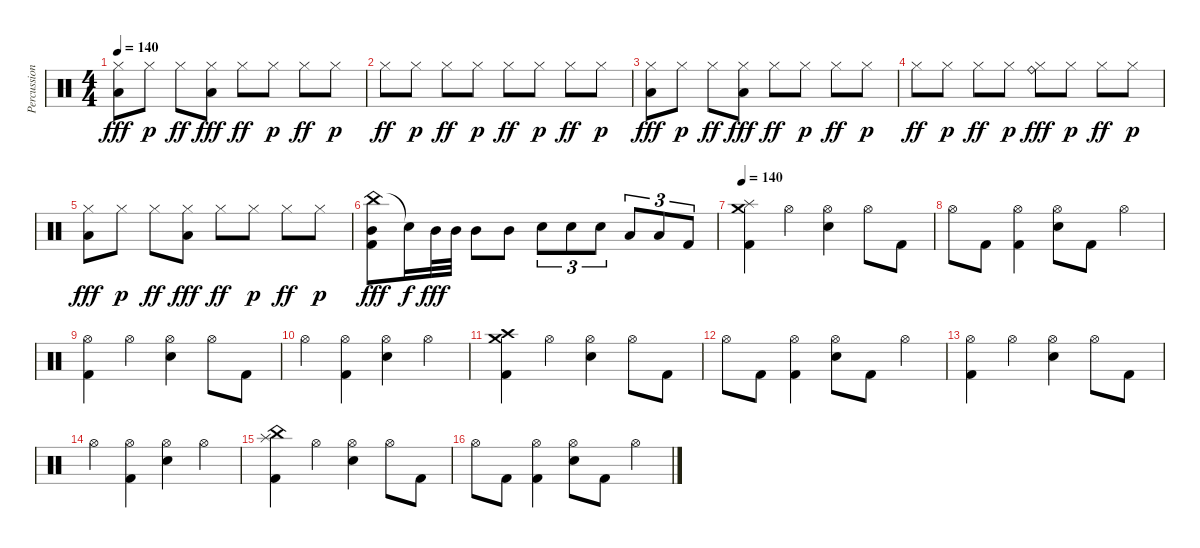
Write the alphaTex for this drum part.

\track ("Percussion" "Percussion") {instrument percussion}
\staff {score}
\articulation defaults
\ts (4 4)
\tempo 140
\clef neutral
\ks c
("Hi-Hat (closed)" "Low Floor Tom (hit)").8{dy fff} "Hi-Hat (closed)".8{dy p} "Hi-Hat (closed)".8{dy ff} ("Hi-Hat (closed)" "Low Floor Tom (hit)").8{dy fff} "Hi-Hat (closed)".8{dy ff} "Hi-Hat (closed)".8{dy p} "Hi-Hat (closed)".8{dy ff} "Hi-Hat (closed)".8{dy p} |
"Hi-Hat (closed)".8{dy ff} "Hi-Hat (closed)".8{dy p} "Hi-Hat (closed)".8{dy ff} "Hi-Hat (closed)".8{dy p} "Hi-Hat (closed)".8{dy ff} "Hi-Hat (closed)".8{dy p} "Hi-Hat (closed)".8{dy ff} "Hi-Hat (closed)".8{dy p} |
("Hi-Hat (closed)" "Low Floor Tom (hit)").8{dy fff} "Hi-Hat (closed)".8{dy p} "Hi-Hat (closed)".8{dy ff} ("Hi-Hat (closed)" "Low Floor Tom (hit)").8{dy fff} "Hi-Hat (closed)".8{dy ff} "Hi-Hat (closed)".8{dy p} "Hi-Hat (closed)".8{dy ff} "Hi-Hat (closed)".8{dy p} |
"Hi-Hat (closed)".8{dy ff} "Hi-Hat (closed)".8{dy p} "Hi-Hat (closed)".8{dy ff} "Hi-Hat (closed)".8{dy p} ("Hi-Hat (closed)" "Ride (bell)").8{dy fff} "Hi-Hat (closed)".8{dy p} "Hi-Hat (closed)".8{dy ff} "Hi-Hat (closed)".8{dy p} |
("Hi-Hat (closed)" "Low Floor Tom (hit)").8{dy fff} "Hi-Hat (closed)".8{dy p} "Hi-Hat (closed)".8{dy ff} ("Hi-Hat (closed)" "Low Floor Tom (hit)").8{dy fff} "Hi-Hat (closed)".8{dy ff} "Hi-Hat (closed)".8{dy p} "Hi-Hat (closed)".8{dy ff} "Hi-Hat (closed)".8{dy p} |
("China (hit)" "Mid Tom (hit)" "Kick (hit) 2").8{dy fff} "Snare (hit)"{t}.16{dy f} "Mid Tom (hit)".32{dy fff} "Mid Tom (hit)".32 "Mid Tom (hit)".8 "Mid Tom (hit)".8 "Electric Snare (hit)".8{tu (3 2)} "Electric Snare (hit)".8{tu (3 2)} "Electric Snare (hit)".8{tu (3 2)} "Low Tom (hit)".8{tu (3 2)} "Low Tom (hit)".8{tu (3 2)} "Kick (hit) 2".8{tu (3 2)} |
\tempo 140
("Crash medium (hit)" "Splash (hit)" "Kick (hit) 2").4 "Hi-Hat (open)".4 ("Hi-Hat (open)" "Electric Snare (hit)").4 "Hi-Hat (open)".8 "Kick (hit) 2".8 |
"Hi-Hat (open)".8 "Kick (hit) 2".8 ("Hi-Hat (open)" "Kick (hit) 2").4 ("Hi-Hat (open)" "Electric Snare (hit)").8 "Kick (hit) 2".8 "Hi-Hat (open)".4 |
("Hi-Hat (open)" "Kick (hit) 2").4 "Hi-Hat (open)".4 ("Hi-Hat (open)" "Electric Snare (hit)").4 "Hi-Hat (open)".8 "Kick (hit) 2".8 |
"Hi-Hat (open)".4 ("Hi-Hat (open)" "Kick (hit) 2").4 ("Hi-Hat (open)" "Electric Snare (hit)").4 "Hi-Hat (open)".4 |
("Crash medium (hit)" "Crash high (hit)" "Kick (hit) 2").4 "Hi-Hat (open)".4 ("Hi-Hat (open)" "Electric Snare (hit)").4 "Hi-Hat (open)".8 "Kick (hit) 2".8 |
"Hi-Hat (open)".8 "Kick (hit) 2".8 ("Hi-Hat (open)" "Kick (hit) 2").4 ("Hi-Hat (open)" "Electric Snare (hit)").8 "Kick (hit) 2".8 "Hi-Hat (open)".4 |
("Hi-Hat (open)" "Kick (hit) 2").4 "Hi-Hat (open)".4 ("Hi-Hat (open)" "Electric Snare (hit)").4 "Hi-Hat (open)".8 "Kick (hit) 2".8 |
"Hi-Hat (open)".4 ("Hi-Hat (open)" "Kick (hit) 2").4 ("Hi-Hat (open)" "Electric Snare (hit)").4 "Hi-Hat (open)".4 |
("Splash (hit)" "China (hit)" "Kick (hit) 2").4 "Hi-Hat (open)".4 ("Hi-Hat (open)" "Electric Snare (hit)").4 "Hi-Hat (open)".8 "Kick (hit) 2".8 |
"Hi-Hat (open)".8 "Kick (hit) 2".8 ("Hi-Hat (open)" "Kick (hit) 2").4 ("Hi-Hat (open)" "Electric Snare (hit)").8 "Kick (hit) 2".8 "Hi-Hat (open)".4
